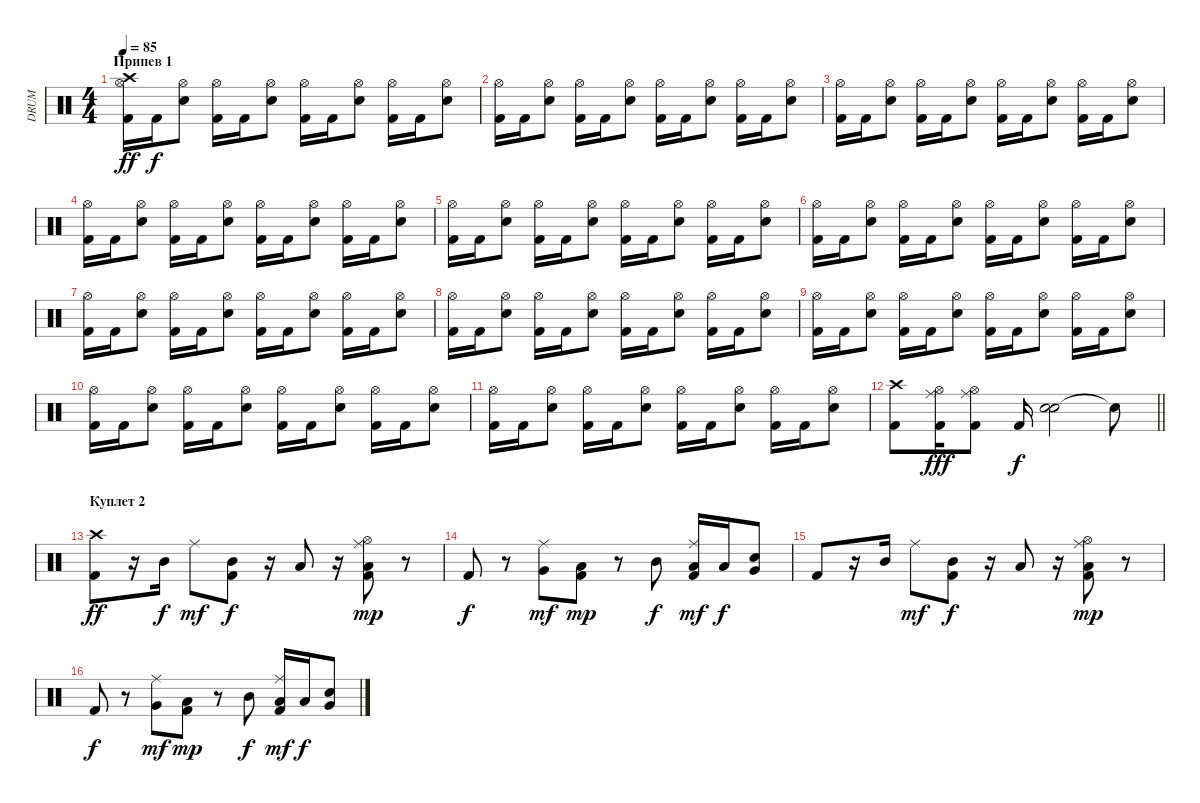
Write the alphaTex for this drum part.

\track ("DRUM" "DRUM") {instrument percussion}
\staff {score}
\articulation defaults
\ts (4 4)
\section ("" "Припев 1")
\tempo 85
\clef neutral
\ks c
("Hi-Hat (open)" "Kick (hit) 2" "Crash high (hit)").16{dy ff} "Kick (hit) 2".16{dy f} ("Hi-Hat (open)" "Snare (hit) 2").8 ("Hi-Hat (open)" "Kick (hit) 2").16 "Kick (hit) 2".16 ("Hi-Hat (open)" "Snare (hit) 2").8 ("Hi-Hat (open)" "Kick (hit) 2").16 "Kick (hit) 2".16 ("Hi-Hat (open)" "Snare (hit) 2").8 ("Hi-Hat (open)" "Kick (hit) 2").16 "Kick (hit) 2".16 ("Hi-Hat (open)" "Snare (hit) 2").8 |
("Hi-Hat (open)" "Kick (hit) 2").16 "Kick (hit) 2".16 ("Hi-Hat (open)" "Snare (hit) 2").8 ("Hi-Hat (open)" "Kick (hit) 2").16 "Kick (hit) 2".16 ("Hi-Hat (open)" "Snare (hit) 2").8 ("Hi-Hat (open)" "Kick (hit) 2").16 "Kick (hit) 2".16 ("Hi-Hat (open)" "Snare (hit) 2").8 ("Hi-Hat (open)" "Kick (hit) 2").16 "Kick (hit) 2".16 ("Hi-Hat (open)" "Snare (hit) 2").8 |
("Hi-Hat (open)" "Kick (hit) 2").16 "Kick (hit) 2".16 ("Hi-Hat (open)" "Snare (hit) 2").8 ("Hi-Hat (open)" "Kick (hit) 2").16 "Kick (hit) 2".16 ("Hi-Hat (open)" "Snare (hit) 2").8 ("Hi-Hat (open)" "Kick (hit) 2").16 "Kick (hit) 2".16 ("Hi-Hat (open)" "Snare (hit) 2").8 ("Hi-Hat (open)" "Kick (hit) 2").16 "Kick (hit) 2".16 ("Hi-Hat (open)" "Snare (hit) 2").8 |
("Hi-Hat (open)" "Kick (hit) 2").16 "Kick (hit) 2".16 ("Hi-Hat (open)" "Snare (hit) 2").8 ("Hi-Hat (open)" "Kick (hit) 2").16 "Kick (hit) 2".16 ("Hi-Hat (open)" "Snare (hit) 2").8 ("Hi-Hat (open)" "Kick (hit) 2").16 "Kick (hit) 2".16 ("Hi-Hat (open)" "Snare (hit) 2").8 ("Hi-Hat (open)" "Kick (hit) 2").16 "Kick (hit) 2".16 ("Hi-Hat (open)" "Snare (hit) 2").8 |
("Hi-Hat (open)" "Kick (hit) 2").16 "Kick (hit) 2".16 ("Hi-Hat (open)" "Snare (hit) 2").8 ("Hi-Hat (open)" "Kick (hit) 2").16 "Kick (hit) 2".16 ("Hi-Hat (open)" "Snare (hit) 2").8 ("Hi-Hat (open)" "Kick (hit) 2").16 "Kick (hit) 2".16 ("Hi-Hat (open)" "Snare (hit) 2").8 ("Hi-Hat (open)" "Kick (hit) 2").16 "Kick (hit) 2".16 ("Hi-Hat (open)" "Snare (hit) 2").8 |
("Hi-Hat (open)" "Kick (hit) 2").16 "Kick (hit) 2".16 ("Hi-Hat (open)" "Snare (hit) 2").8 ("Hi-Hat (open)" "Kick (hit) 2").16 "Kick (hit) 2".16 ("Hi-Hat (open)" "Snare (hit) 2").8 ("Hi-Hat (open)" "Kick (hit) 2").16 "Kick (hit) 2".16 ("Hi-Hat (open)" "Snare (hit) 2").8 ("Hi-Hat (open)" "Kick (hit) 2").16 "Kick (hit) 2".16 ("Hi-Hat (open)" "Snare (hit) 2").8 |
("Hi-Hat (open)" "Kick (hit) 2").16 "Kick (hit) 2".16 ("Hi-Hat (open)" "Snare (hit) 2").8 ("Hi-Hat (open)" "Kick (hit) 2").16 "Kick (hit) 2".16 ("Hi-Hat (open)" "Snare (hit) 2").8 ("Hi-Hat (open)" "Kick (hit) 2").16 "Kick (hit) 2".16 ("Hi-Hat (open)" "Snare (hit) 2").8 ("Hi-Hat (open)" "Kick (hit) 2").16 "Kick (hit) 2".16 ("Hi-Hat (open)" "Snare (hit) 2").8 |
("Hi-Hat (open)" "Kick (hit) 2").16 "Kick (hit) 2".16 ("Hi-Hat (open)" "Snare (hit) 2").8 ("Hi-Hat (open)" "Kick (hit) 2").16 "Kick (hit) 2".16 ("Hi-Hat (open)" "Snare (hit) 2").8 ("Hi-Hat (open)" "Kick (hit) 2").16 "Kick (hit) 2".16 ("Hi-Hat (open)" "Snare (hit) 2").8 ("Hi-Hat (open)" "Kick (hit) 2").16 "Kick (hit) 2".16 ("Hi-Hat (open)" "Snare (hit) 2").8 |
("Hi-Hat (open)" "Kick (hit) 2").16 "Kick (hit) 2".16 ("Hi-Hat (open)" "Snare (hit) 2").8 ("Hi-Hat (open)" "Kick (hit) 2").16 "Kick (hit) 2".16 ("Hi-Hat (open)" "Snare (hit) 2").8 ("Hi-Hat (open)" "Kick (hit) 2").16 "Kick (hit) 2".16 ("Hi-Hat (open)" "Snare (hit) 2").8 ("Hi-Hat (open)" "Kick (hit) 2").16 "Kick (hit) 2".16 ("Hi-Hat (open)" "Snare (hit) 2").8 |
("Hi-Hat (open)" "Kick (hit) 2").16 "Kick (hit) 2".16 ("Hi-Hat (open)" "Snare (hit) 2").8 ("Hi-Hat (open)" "Kick (hit) 2").16 "Kick (hit) 2".16 ("Hi-Hat (open)" "Snare (hit) 2").8 ("Hi-Hat (open)" "Kick (hit) 2").16 "Kick (hit) 2".16 ("Hi-Hat (open)" "Snare (hit) 2").8 ("Hi-Hat (open)" "Kick (hit) 2").16 "Kick (hit) 2".16 ("Hi-Hat (open)" "Snare (hit) 2").8 |
("Hi-Hat (open)" "Kick (hit) 2").16 "Kick (hit) 2".16 ("Hi-Hat (open)" "Snare (hit) 2").8 ("Hi-Hat (open)" "Kick (hit) 2").16 "Kick (hit) 2".16 ("Hi-Hat (open)" "Snare (hit) 2").8 ("Hi-Hat (open)" "Kick (hit) 2").16 "Kick (hit) 2".16 ("Hi-Hat (open)" "Snare (hit) 2").8 ("Hi-Hat (open)" "Kick (hit) 2").16 "Kick (hit) 2".16 ("Hi-Hat (open)" "Snare (hit) 2").8 |
\barLineRight lightlight
("Crash high (hit)" "Kick (hit) 2").8 ("Ride (middle)" "Hi-Hat (open)" "Kick (hit) 2").16{dy fff} ("Ride (middle)" "Hi-Hat (open)" "Kick (hit) 2").8 "Kick (hit) 2".16{dy f} ("Snare (hit) 2" "Snare (hit) 2").2 "Snare (hit)"{t}.8 |
\section ("" "Куплет 2")
("Crash high (hit)" "Kick (hit) 2").8{dy ff} r.16 "Mid Tom (hit)".16{dy f} "Ride (middle)".8{dy mf} ("Mid Tom (hit)" "Kick (hit) 2").8{dy f} r.16 "Low Tom (hit)".8 r.16 ("Ride (middle)" "Hi-Hat (open)" "Kick (hit) 2" "Low Floor Tom (hit)").8{dy mp} r.8 |
"Kick (hit) 2".8{dy f} r.8 ("Ride (middle)" "Very Low Tom (hit)").8{dy mf} ("Low Floor Tom (hit)" "Kick (hit) 2").8{dy mp} r.8 "Mid Tom (hit)".8{dy f} ("Ride (middle)" "Low Tom (hit)" "Kick (hit) 2").16{dy mf} "Low Tom (hit)".16{dy f} ("Snare (hit) 2" "Very Low Tom (hit)").8 |
"Kick (hit) 2".8 r.16 "Mid Tom (hit)".16 "Ride (middle)".8{dy mf} ("Mid Tom (hit)" "Kick (hit) 2").8{dy f} r.16 "Low Tom (hit)".8 r.16 ("Ride (middle)" "Hi-Hat (open)" "Kick (hit) 2" "Low Floor Tom (hit)").8{dy mp} r.8 |
"Kick (hit) 2".8{dy f} r.8 ("Ride (middle)" "Very Low Tom (hit)").8{dy mf} ("Low Floor Tom (hit)" "Kick (hit) 2").8{dy mp} r.8 "Mid Tom (hit)".8{dy f} ("Ride (middle)" "Low Tom (hit)" "Kick (hit) 2").16{dy mf} "Low Tom (hit)".16{dy f} ("Snare (hit) 2" "Very Low Tom (hit)").8
